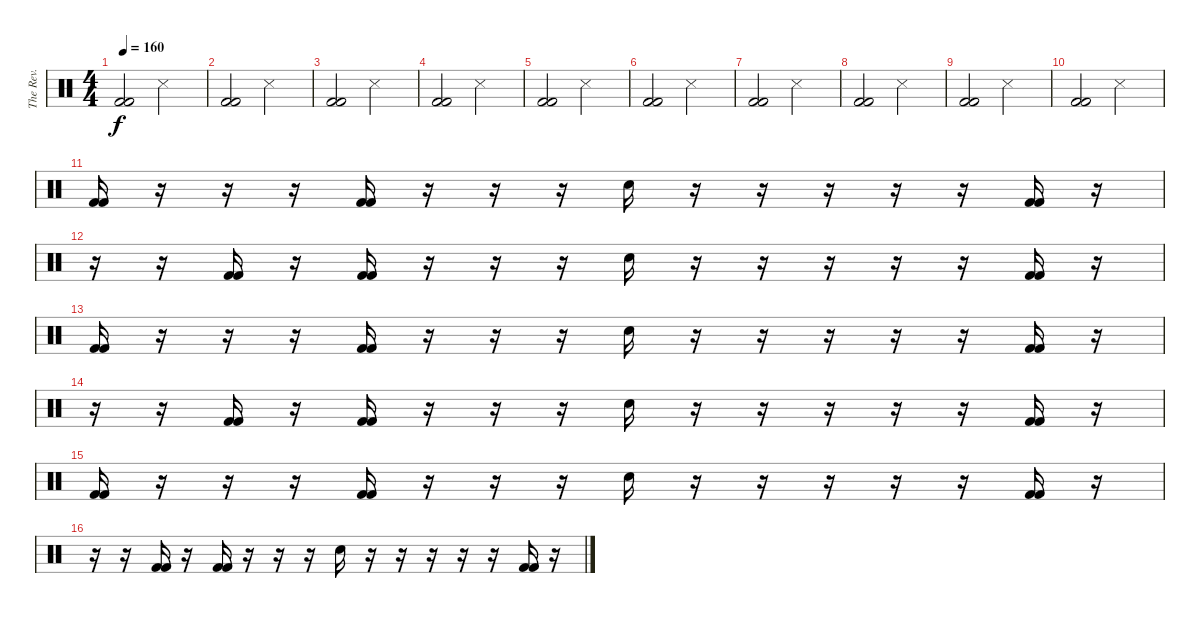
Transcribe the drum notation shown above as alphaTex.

\track ("The Rev." "The Rev.") {instrument percussion}
\staff {score}
\articulation defaults
\ts (4 4)
\tempo 160
\clef neutral
\ks c
("Kick (hit) 2" "Kick (hit) 2").2{dy f} "Metronome (hit)".2 |
("Kick (hit) 2" "Kick (hit) 2").2 "Metronome (hit)".2 |
("Kick (hit) 2" "Kick (hit) 2").2 "Metronome (hit)".2 |
("Kick (hit) 2" "Kick (hit) 2").2 "Metronome (hit)".2 |
("Kick (hit) 2" "Kick (hit) 2").2 "Metronome (hit)".2 |
("Kick (hit) 2" "Kick (hit) 2").2 "Metronome (hit)".2 |
("Kick (hit) 2" "Kick (hit) 2").2 "Metronome (hit)".2 |
("Kick (hit) 2" "Kick (hit) 2").2 "Metronome (hit)".2 |
("Kick (hit) 2" "Kick (hit) 2").2 "Metronome (hit)".2 |
("Kick (hit) 2" "Kick (hit) 2").2 "Metronome (hit)".2 |
("Kick (hit) 2" "Kick (hit) 2").16 r.16 r.16 r.16 ("Kick (hit) 2" "Kick (hit) 2").16 r.16 r.16 r.16 "Electric Snare (hit)".16 r.16 r.16 r.16 r.16 r.16 ("Kick (hit) 2" "Kick (hit) 2").16 r.16 |
r.16 r.16 ("Kick (hit) 2" "Kick (hit) 2").16 r.16 ("Kick (hit) 2" "Kick (hit) 2").16 r.16 r.16 r.16 "Electric Snare (hit)".16 r.16 r.16 r.16 r.16 r.16 ("Kick (hit) 2" "Kick (hit) 2").16 r.16 |
("Kick (hit) 2" "Kick (hit) 2").16 r.16 r.16 r.16 ("Kick (hit) 2" "Kick (hit) 2").16 r.16 r.16 r.16 "Electric Snare (hit)".16 r.16 r.16 r.16 r.16 r.16 ("Kick (hit) 2" "Kick (hit) 2").16 r.16 |
r.16 r.16 ("Kick (hit) 2" "Kick (hit) 2").16 r.16 ("Kick (hit) 2" "Kick (hit) 2").16 r.16 r.16 r.16 "Electric Snare (hit)".16 r.16 r.16 r.16 r.16 r.16 ("Kick (hit) 2" "Kick (hit) 2").16 r.16 |
("Kick (hit) 2" "Kick (hit) 2").16 r.16 r.16 r.16 ("Kick (hit) 2" "Kick (hit) 2").16 r.16 r.16 r.16 "Electric Snare (hit)".16 r.16 r.16 r.16 r.16 r.16 ("Kick (hit) 2" "Kick (hit) 2").16 r.16 |
r.16 r.16 ("Kick (hit) 2" "Kick (hit) 2").16 r.16 ("Kick (hit) 2" "Kick (hit) 2").16 r.16 r.16 r.16 "Electric Snare (hit)".16 r.16 r.16 r.16 r.16 r.16 ("Kick (hit) 2" "Kick (hit) 2").16 r.16
